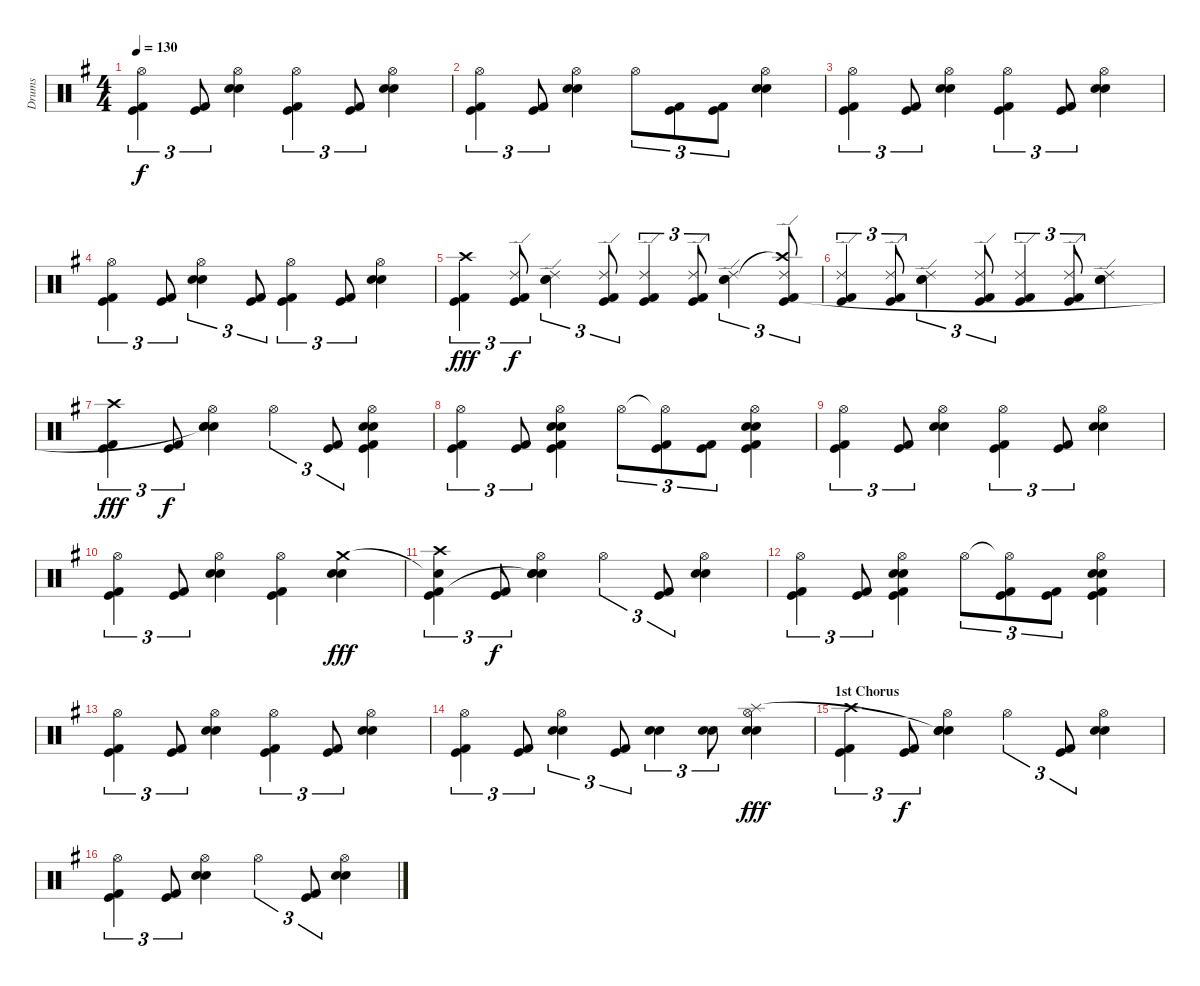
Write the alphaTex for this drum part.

\track ("Drums" "Drums") {instrument percussion}
\staff {score}
\articulation defaults
\ts (4 4)
\tempo 130
\clef neutral
\ks g
("Hi-Hat (open)" "Kick (hit)" "Kick (hit) 2").4{tu (3 2) dy f} ("Kick (hit)" "Kick (hit) 2").8{tu (3 2)} ("Hi-Hat (open)" "Electric Snare (hit)" "Snare (hit) 2").4 ("Hi-Hat (open)" "Kick (hit)" "Kick (hit) 2").4{tu (3 2)} ("Kick (hit)" "Kick (hit) 2").8{tu (3 2)} ("Hi-Hat (open)" "Electric Snare (hit)" "Snare (hit) 2").4 |
("Hi-Hat (open)" "Kick (hit)" "Kick (hit) 2").4{tu (3 2)} ("Kick (hit)" "Kick (hit) 2").8{tu (3 2)} ("Hi-Hat (open)" "Electric Snare (hit)" "Snare (hit) 2").4 "Hi-Hat (open)".8{tu (3 2)} ("Kick (hit)" "Kick (hit) 2").8{tu (3 2)} ("Kick (hit)" "Kick (hit) 2").8{tu (3 2)} ("Hi-Hat (open)" "Electric Snare (hit)" "Snare (hit) 2").4 |
("Hi-Hat (open)" "Kick (hit)" "Kick (hit) 2").4{tu (3 2)} ("Kick (hit)" "Kick (hit) 2").8{tu (3 2)} ("Hi-Hat (open)" "Electric Snare (hit)" "Snare (hit) 2").4 ("Hi-Hat (open)" "Kick (hit)" "Kick (hit) 2").4{tu (3 2)} ("Kick (hit)" "Kick (hit) 2").8{tu (3 2)} ("Hi-Hat (open)" "Electric Snare (hit)" "Snare (hit) 2").4 |
("Hi-Hat (open)" "Kick (hit)" "Kick (hit) 2").4{tu (3 2)} ("Kick (hit)" "Kick (hit) 2").8{tu (3 2)} ("Hi-Hat (open)" "Electric Snare (hit)" "Snare (hit) 2").4{tu (3 2)} ("Kick (hit)" "Kick (hit) 2").8{tu (3 2)} ("Hi-Hat (open)" "Kick (hit)" "Kick (hit) 2").4{tu (3 2)} ("Kick (hit)" "Kick (hit) 2").8{tu (3 2)} ("Hi-Hat (open)" "Electric Snare (hit)" "Snare (hit) 2").4 |
("Crash high (hit)" "Kick (hit)" "Kick (hit) 2").4{tu (3 2) dy fff} ("Ride (edge) 2" "Kick (hit)" "Kick (hit) 2").8{tu (3 2) dy f} ("Ride (edge) 2" "Electric Snare (hit)" "Snare (hit) 2").4{tu (3 2)} ("Ride (edge) 2" "Kick (hit)" "Kick (hit) 2").8{tu (3 2)} ("Ride (edge) 2" "Kick (hit)" "Kick (hit) 2").4{tu (3 2)} ("Ride (edge) 2" "Kick (hit)" "Kick (hit) 2").8{tu (3 2)} ("Ride (edge) 2" "Electric Snare (hit)" "Snare (hit) 2").4{tu (3 2)} ("Ride (edge) 2" "Crash high (hit)"{t} "Kick (hit)" "Kick (hit) 2").8{tu (3 2)} |
("Ride (edge) 2" "Kick (hit)" "Kick (hit) 2").4{tu (3 2)} ("Ride (edge) 2" "Kick (hit)" "Kick (hit) 2").8{tu (3 2)} ("Ride (edge) 2" "Electric Snare (hit)" "Snare (hit) 2").4{tu (3 2)} ("Ride (edge) 2" "Kick (hit)" "Kick (hit) 2").8{tu (3 2)} ("Ride (edge) 2" "Kick (hit)" "Kick (hit) 2").4{tu (3 2)} ("Ride (edge) 2" "Kick (hit)" "Kick (hit) 2").8{tu (3 2)} ("Ride (edge) 2" "Electric Snare (hit)" "Snare (hit) 2").4 |
("Crash high (hit)" "Kick (hit)" "Kick (hit) 2").4{tu (3 2) dy fff} ("Kick (hit)" "Kick (hit) 2").8{tu (3 2) dy f} ("Hi-Hat (open)" "Electric Snare (hit)" "Snare (hit) 2" "Snare (hit)"{t}).4 "Hi-Hat (open)".4{tu (3 2)} ("Kick (hit)" "Kick (hit) 2").8{tu (3 2)} ("Hi-Hat (open)" "Electric Snare (hit)" "Snare (hit) 2" "Kick (hit)" "Kick (hit) 2").4 |
("Hi-Hat (open)" "Kick (hit)" "Kick (hit) 2").4{tu (3 2)} ("Kick (hit)" "Kick (hit) 2").8{tu (3 2)} ("Hi-Hat (open)" "Electric Snare (hit)" "Snare (hit) 2" "Kick (hit)" "Kick (hit) 2").4 "Hi-Hat (open)".8{tu (3 2)} ("Hi-Hat (open)"{t} "Kick (hit)" "Kick (hit) 2").8{tu (3 2)} ("Kick (hit)" "Kick (hit) 2").8{tu (3 2)} ("Hi-Hat (open)" "Electric Snare (hit)" "Snare (hit) 2" "Kick (hit)" "Kick (hit) 2").4 |
("Hi-Hat (open)" "Kick (hit)" "Kick (hit) 2").4{tu (3 2)} ("Kick (hit)" "Kick (hit) 2").8{tu (3 2)} ("Hi-Hat (open)" "Electric Snare (hit)" "Snare (hit) 2").4 ("Hi-Hat (open)" "Kick (hit)" "Kick (hit) 2").4{tu (3 2)} ("Kick (hit)" "Kick (hit) 2").8{tu (3 2)} ("Hi-Hat (open)" "Electric Snare (hit)" "Snare (hit) 2").4 |
("Hi-Hat (open)" "Kick (hit)" "Kick (hit) 2").4{tu (3 2)} ("Kick (hit)" "Kick (hit) 2").8{tu (3 2)} ("Hi-Hat (open)" "Electric Snare (hit)" "Snare (hit) 2").4 ("Hi-Hat (open)" "Kick (hit)" "Kick (hit) 2").4 ("Crash medium (hit)" "Electric Snare (hit)" "Snare (hit) 2").4{dy fff} |
("Snare (hit)"{t} "Crash high (hit)" "Kick (hit)" "Kick (hit) 2").4{tu (3 2)} ("Kick (hit)" "Kick (hit) 2").8{tu (3 2) dy f} ("Hi-Hat (open)" "Electric Snare (hit)" "Snare (hit) 2" "Snare (hit)"{t}).4 "Hi-Hat (open)".4{tu (3 2)} ("Kick (hit)" "Kick (hit) 2").8{tu (3 2)} ("Hi-Hat (open)" "Electric Snare (hit)" "Snare (hit) 2").4 |
("Hi-Hat (open)" "Kick (hit)" "Kick (hit) 2").4{tu (3 2)} ("Kick (hit)" "Kick (hit) 2").8{tu (3 2)} ("Hi-Hat (open)" "Electric Snare (hit)" "Snare (hit) 2" "Kick (hit)" "Kick (hit) 2").4 "Hi-Hat (open)".8{tu (3 2)} ("Hi-Hat (open)"{t} "Kick (hit)" "Kick (hit) 2").8{tu (3 2)} ("Kick (hit)" "Kick (hit) 2").8{tu (3 2)} ("Hi-Hat (open)" "Electric Snare (hit)" "Snare (hit) 2" "Kick (hit)" "Kick (hit) 2").4 |
("Hi-Hat (open)" "Kick (hit)" "Kick (hit) 2").4{tu (3 2)} ("Kick (hit)" "Kick (hit) 2").8{tu (3 2)} ("Hi-Hat (open)" "Electric Snare (hit)" "Snare (hit) 2").4 ("Hi-Hat (open)" "Kick (hit)" "Kick (hit) 2").4{tu (3 2)} ("Kick (hit)" "Kick (hit) 2").8{tu (3 2)} ("Hi-Hat (open)" "Electric Snare (hit)" "Snare (hit) 2").4 |
("Hi-Hat (open)" "Kick (hit)" "Kick (hit) 2").4{tu (3 2)} ("Kick (hit)" "Kick (hit) 2").8{tu (3 2)} ("Hi-Hat (open)" "Electric Snare (hit)" "Snare (hit) 2").4{tu (3 2)} ("Kick (hit)" "Kick (hit) 2").8{tu (3 2)} ("Electric Snare (hit)" "Snare (hit) 2").4{tu (3 2)} ("Electric Snare (hit)" "Snare (hit) 2").8{tu (3 2)} ("Hi-Hat (open)" "Electric Snare (hit)" "Snare (hit) 2" "Splash (hit)").4{dy fff} |
\section ("" "1st Chorus")
("Crash high (hit)" "Kick (hit)" "Kick (hit) 2").4{tu (3 2)} ("Kick (hit)" "Kick (hit) 2").8{tu (3 2) dy f} ("Hi-Hat (open)" "Electric Snare (hit)" "Snare (hit) 2" "Snare (hit)"{t}).4 "Hi-Hat (open)".4{tu (3 2)} ("Kick (hit)" "Kick (hit) 2").8{tu (3 2)} ("Hi-Hat (open)" "Electric Snare (hit)" "Snare (hit) 2").4 |
("Hi-Hat (open)" "Kick (hit)" "Kick (hit) 2").4{tu (3 2)} ("Kick (hit)" "Kick (hit) 2").8{tu (3 2)} ("Hi-Hat (open)" "Electric Snare (hit)" "Snare (hit) 2").4 "Hi-Hat (open)".4{tu (3 2)} ("Kick (hit)" "Kick (hit) 2").8{tu (3 2)} ("Hi-Hat (open)" "Electric Snare (hit)" "Snare (hit) 2").4
